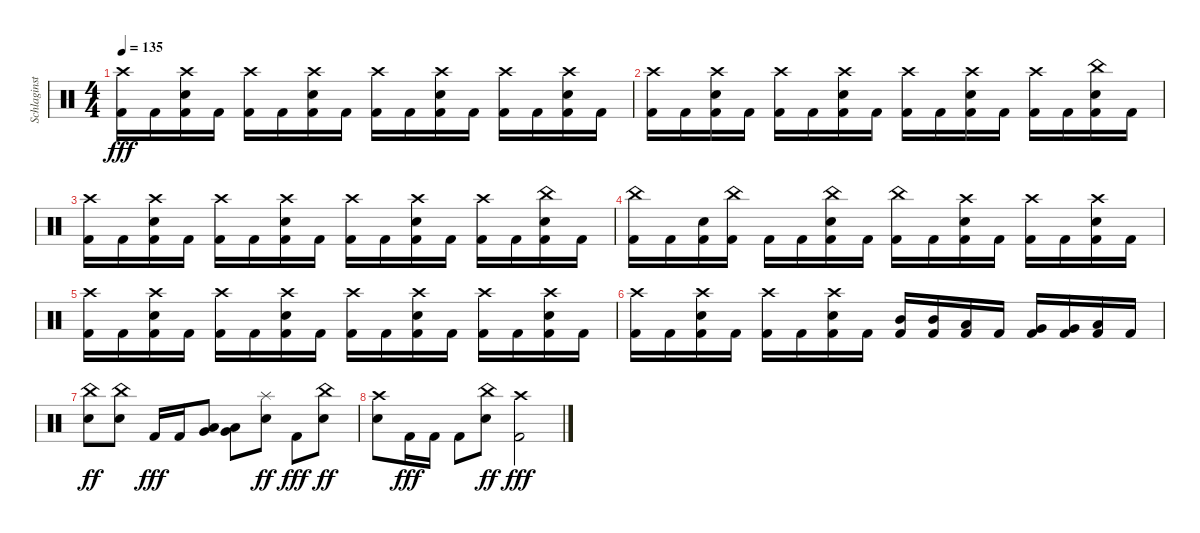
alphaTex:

\track ("Schlaginstrumente - Auswahl" "Schlaginst") {instrument percussion}
\staff {score}
\articulation defaults
\ts (4 4)
\tempo 135
\clef neutral
\ks c
("Crash high (hit)" "Kick (hit) 2").16{dy fff} "Kick (hit) 2".16 ("Crash high (hit)" "Snare (hit) 2" "Kick (hit) 2").16 "Kick (hit) 2".16 ("Crash high (hit)" "Kick (hit) 2").16 "Kick (hit) 2".16 ("Crash high (hit)" "Snare (hit) 2" "Kick (hit) 2").16 "Kick (hit) 2".16 ("Crash high (hit)" "Kick (hit) 2").16 "Kick (hit) 2".16 ("Crash high (hit)" "Snare (hit) 2" "Kick (hit) 2").16 "Kick (hit) 2".16 ("Crash high (hit)" "Kick (hit) 2").16 "Kick (hit) 2".16 ("Crash high (hit)" "Snare (hit) 2" "Kick (hit) 2").16 "Kick (hit) 2".16 |
("Crash high (hit)" "Kick (hit) 2").16 "Kick (hit) 2".16 ("Crash high (hit)" "Snare (hit) 2" "Kick (hit) 2").16 "Kick (hit) 2".16 ("Crash high (hit)" "Kick (hit) 2").16 "Kick (hit) 2".16 ("Crash high (hit)" "Snare (hit) 2" "Kick (hit) 2").16 "Kick (hit) 2".16 ("Crash high (hit)" "Kick (hit) 2").16 "Kick (hit) 2".16 ("Crash high (hit)" "Snare (hit) 2" "Kick (hit) 2").16 "Kick (hit) 2".16 ("Crash high (hit)" "Kick (hit) 2").16 "Kick (hit) 2".16 ("China (hit)" "Snare (hit) 2" "Kick (hit) 2").16 "Kick (hit) 2".16 |
("Crash high (hit)" "Kick (hit) 2").16 "Kick (hit) 2".16 ("Crash high (hit)" "Snare (hit) 2" "Kick (hit) 2").16 "Kick (hit) 2".16 ("Crash high (hit)" "Kick (hit) 2").16 "Kick (hit) 2".16 ("Crash high (hit)" "Snare (hit) 2" "Kick (hit) 2").16 "Kick (hit) 2".16 ("Crash high (hit)" "Kick (hit) 2").16 "Kick (hit) 2".16 ("Crash high (hit)" "Snare (hit) 2" "Kick (hit) 2").16 "Kick (hit) 2".16 ("Crash high (hit)" "Kick (hit) 2").16 "Kick (hit) 2".16 ("China (hit)" "Snare (hit) 2" "Kick (hit) 2").16 "Kick (hit) 2".16 |
("China (hit)" "Kick (hit) 2").16 "Kick (hit) 2".16 ("Snare (hit) 2" "Kick (hit) 2").16 ("China (hit)" "Kick (hit) 2").16 "Kick (hit) 2".16 "Kick (hit) 2".16 ("China (hit)" "Snare (hit) 2" "Kick (hit) 2").16 "Kick (hit) 2".16 ("China (hit)" "Kick (hit) 2").16 "Kick (hit) 2".16 ("Crash high (hit)" "Snare (hit) 2" "Kick (hit) 2").16 "Kick (hit) 2".16 ("Crash high (hit)" "Kick (hit) 2").16 "Kick (hit) 2".16 ("Crash high (hit)" "Snare (hit) 2" "Kick (hit) 2").16 "Kick (hit) 2".16 |
("Crash high (hit)" "Kick (hit) 2").16 "Kick (hit) 2".16 ("Crash high (hit)" "Snare (hit) 2" "Kick (hit) 2").16 "Kick (hit) 2".16 ("Crash high (hit)" "Kick (hit) 2").16 "Kick (hit) 2".16 ("Crash high (hit)" "Snare (hit) 2" "Kick (hit) 2").16 "Kick (hit) 2".16 ("Crash high (hit)" "Kick (hit) 2").16 "Kick (hit) 2".16 ("Crash high (hit)" "Snare (hit) 2" "Kick (hit) 2").16 "Kick (hit) 2".16 ("Crash high (hit)" "Kick (hit) 2").16 "Kick (hit) 2".16 ("Crash high (hit)" "Snare (hit) 2" "Kick (hit) 2").16 "Kick (hit) 2".16 |
("Crash high (hit)" "Kick (hit) 2").16 "Kick (hit) 2".16 ("Crash high (hit)" "Snare (hit) 2" "Kick (hit) 2").16 "Kick (hit) 2".16 ("Crash high (hit)" "Kick (hit) 2").16 "Kick (hit) 2".16 ("Crash high (hit)" "Snare (hit) 2" "Kick (hit) 2").16 "Kick (hit) 2".16 ("Mid Tom (hit)" "Kick (hit) 2").16 ("Mid Tom (hit)" "Kick (hit) 2").16 ("Low Tom (hit)" "Kick (hit) 2").16 "Kick (hit) 2".16 ("Very Low Tom (hit)" "Kick (hit) 2").16 ("Very Low Tom (hit)" "Kick (hit) 2").16 ("Low Floor Tom (hit)" "Kick (hit) 2").16 "Kick (hit) 2".16 |
("China (hit)" "Snare (hit) 2").8{dy ff} ("China (hit)" "Snare (hit) 2").8 "Kick (hit) 2".16{dy fff} "Kick (hit) 2".16 ("Very Low Tom (hit)" "Low Floor Tom (hit)").8 ("Very Low Tom (hit)" "Low Floor Tom (hit)").8 ("Splash (hit)" "Snare (hit) 2").8{dy ff} "Kick (hit) 2".8{dy fff} ("China (hit)" "Snare (hit) 2").8{dy ff} |
("Crash high (hit)" "Snare (hit) 2").8 "Kick (hit) 2".16{dy fff} "Kick (hit) 2".16 "Kick (hit) 2".8 ("China (hit)" "Snare (hit) 2").8{dy ff} ("Crash high (hit)" "Kick (hit) 2").2{dy fff}
